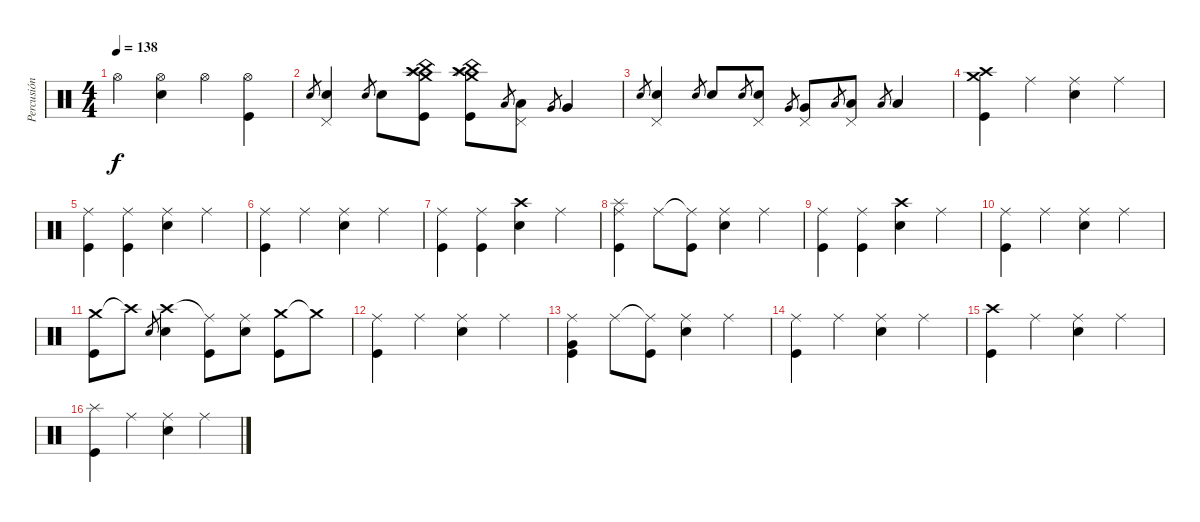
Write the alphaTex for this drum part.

\track ("Percusión" "Percusión") {instrument percussion}
\staff {score}
\articulation defaults
\ts (4 4)
\tempo 138
\clef neutral
\ks c "Hi-Hat (open)".4{dy f}
("Hi-Hat (open)" "Electric Snare (hit)").4 "Hi-Hat (open)".4 ("Hi-Hat (open)" "Kick (hit)").4 |
"Electric Snare (hit)".8{gr} ("Pedal Hi-Hat (hit)" "Electric Snare (hit)").4 "Electric Snare (hit)".8{gr} "Electric Snare (hit)".8 ("Crash high (hit)" "Crash medium (hit)" "Splash (hit)" "China (hit)" "Kick (hit)").8 ("Crash high (hit)" "Crash medium (hit)" "Splash (hit)" "China (hit)" "Kick (hit)").8 "Low Floor Tom (hit)".8{gr} ("Pedal Hi-Hat (hit)" "Low Floor Tom (hit)").8 "Very Low Tom (hit)".8{gr} "Very Low Tom (hit)".4 |
"Electric Snare (hit)".8{gr} ("Pedal Hi-Hat (hit)" "Electric Snare (hit)").4 "Electric Snare (hit)".8{gr} "Electric Snare (hit)".8 "Electric Snare (hit)".8{gr} ("Pedal Hi-Hat (hit)" "Electric Snare (hit)").8 "Very Low Tom (hit)".8{gr} ("Pedal Hi-Hat (hit)" "Very Low Tom (hit)").8 "Low Floor Tom (hit)".8{gr} ("Pedal Hi-Hat (hit)" "Low Floor Tom (hit)").8 "Low Floor Tom (hit)".8{gr} "Low Floor Tom (hit)".4 |
("Crash high (hit)" "Crash medium (hit)" "Kick (hit)").4 "Ride (middle)".4 ("Ride (middle)" "Electric Snare (hit)").4 "Ride (middle)".4 |
("Ride (middle)" "Kick (hit)").4 ("Ride (middle)" "Kick (hit)").4 ("Ride (middle)" "Electric Snare (hit)").4 "Ride (middle)".4 |
("Ride (middle)" "Kick (hit)").4 "Ride (middle)".4 ("Ride (middle)" "Electric Snare (hit)").4 "Ride (middle)".4 |
("Ride (middle)" "Kick (hit)").4 ("Ride (middle)" "Kick (hit)").4 ("Crash high (hit)" "Electric Snare (hit)").4 "Ride (middle)".4 |
("Ride (middle)" "Splash (hit)" "Kick (hit)").4 "Ride (middle)".8 ("Ride (middle)"{t} "Kick (hit)").8 ("Ride (middle)" "Electric Snare (hit)").4 "Ride (middle)".4 |
("Ride (middle)" "Kick (hit)").4 ("Ride (middle)" "Kick (hit)").4 ("Crash high (hit)" "Electric Snare (hit)").4 "Ride (middle)".4 |
("Ride (middle)" "Kick (hit)").4 "Ride (middle)".4 ("Ride (middle)" "Electric Snare (hit)").4 "Ride (middle)".4 |
("Crash medium (hit)" "Kick (hit)").8 "Crash high (hit)"{t}.8 "Electric Snare (hit)".8{gr} ("Crash high (hit)" "Electric Snare (hit)").4 ("Ride (middle)"{t} "Kick (hit)").8 ("Ride (middle)" "Electric Snare (hit)").8 ("Crash medium (hit)" "Kick (hit)").8 "Crash medium (hit)"{t}.8 |
("Ride (middle)" "Kick (hit)").4 "Ride (middle)".4 ("Ride (middle)" "Electric Snare (hit)").4 "Ride (middle)".4 |
("Ride (middle)" "Very Low Tom (hit)" "Kick (hit)").4 "Ride (middle)".8 ("Ride (middle)"{t} "Kick (hit)").8 ("Ride (middle)" "Electric Snare (hit)").4 "Ride (middle)".4 |
("Ride (middle)" "Kick (hit)").4 "Ride (middle)".4 ("Ride (middle)" "Electric Snare (hit)").4 "Ride (middle)".4 |
("Crash high (hit)" "Kick (hit)").4 "Ride (middle)".4 ("Ride (middle)" "Electric Snare (hit)").4 "Ride (middle)".4 |
("Splash (hit)" "Kick (hit)").4 "Ride (middle)".4 ("Ride (middle)" "Electric Snare (hit)").4 "Ride (middle)".4
